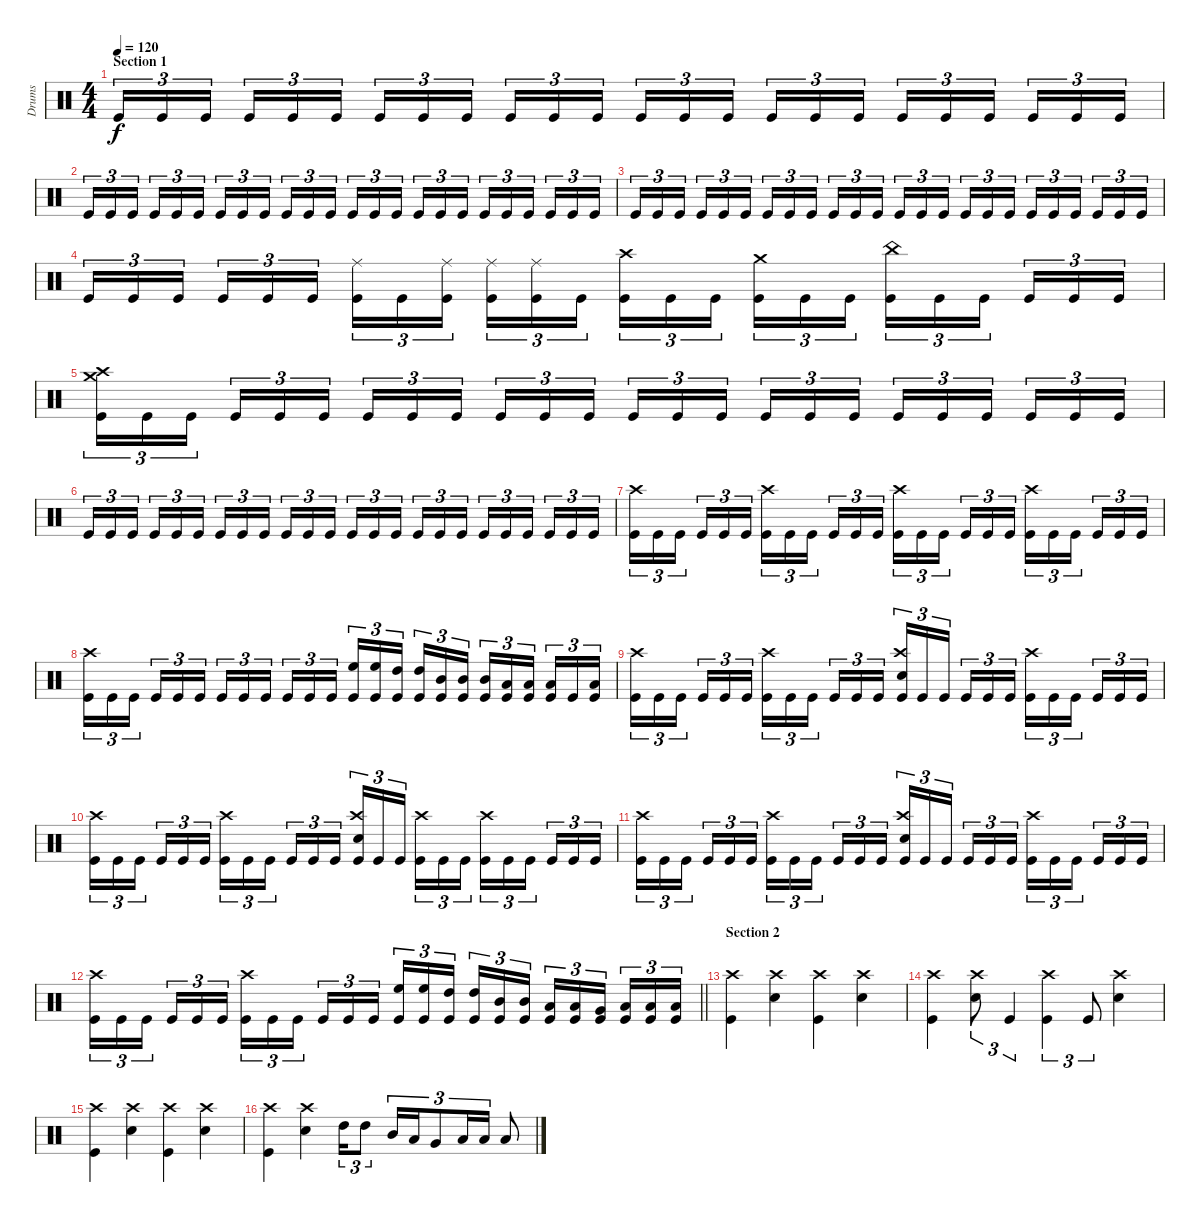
\track ("Drums" "Drums") {instrument percussion}
\staff {score}
\articulation defaults
\ts (4 4)
\section ("" "Section 1")
\tempo 120
\clef neutral
\ks c "Kick (hit)".16{tu (3 2) dy f} "Kick (hit)".16{tu (3 2)} "Kick (hit)".16{tu (3 2) beam splitsecondary} "Kick (hit)".16{tu (3 2)} "Kick (hit)".16{tu (3 2)} "Kick (hit)".16{tu (3 2)} "Kick (hit)".16{tu (3 2)} "Kick (hit)".16{tu (3 2)} "Kick (hit)".16{tu (3 2) beam splitsecondary} "Kick (hit)".16{tu (3 2)} "Kick (hit)".16{tu (3 2)} "Kick (hit)".16{tu (3 2)} "Kick (hit)".16{tu (3 2)} "Kick (hit)".16{tu (3 2)} "Kick (hit)".16{tu (3 2) beam splitsecondary} "Kick (hit)".16{tu (3 2)} "Kick (hit)".16{tu (3 2)} "Kick (hit)".16{tu (3 2)} "Kick (hit)".16{tu (3 2)} "Kick (hit)".16{tu (3 2)} "Kick (hit)".16{tu (3 2) beam splitsecondary} "Kick (hit)".16{tu (3 2)} "Kick (hit)".16{tu (3 2)} "Kick (hit)".16{tu (3 2)}
|
"Kick (hit)".16{tu (3 2)} "Kick (hit)".16{tu (3 2)} "Kick (hit)".16{tu (3 2) beam splitsecondary} "Kick (hit)".16{tu (3 2)} "Kick (hit)".16{tu (3 2)} "Kick (hit)".16{tu (3 2)} "Kick (hit)".16{tu (3 2)} "Kick (hit)".16{tu (3 2)} "Kick (hit)".16{tu (3 2) beam splitsecondary} "Kick (hit)".16{tu (3 2)} "Kick (hit)".16{tu (3 2)} "Kick (hit)".16{tu (3 2)} "Kick (hit)".16{tu (3 2)} "Kick (hit)".16{tu (3 2)} "Kick (hit)".16{tu (3 2) beam splitsecondary} "Kick (hit)".16{tu (3 2)} "Kick (hit)".16{tu (3 2)} "Kick (hit)".16{tu (3 2)} "Kick (hit)".16{tu (3 2)} "Kick (hit)".16{tu (3 2)} "Kick (hit)".16{tu (3 2) beam splitsecondary} "Kick (hit)".16{tu (3 2)} "Kick (hit)".16{tu (3 2)} "Kick (hit)".16{tu (3 2)} |
"Kick (hit)".16{tu (3 2)} "Kick (hit)".16{tu (3 2)} "Kick (hit)".16{tu (3 2) beam splitsecondary} "Kick (hit)".16{tu (3 2)} "Kick (hit)".16{tu (3 2)} "Kick (hit)".16{tu (3 2)} "Kick (hit)".16{tu (3 2)} "Kick (hit)".16{tu (3 2)} "Kick (hit)".16{tu (3 2) beam splitsecondary} "Kick (hit)".16{tu (3 2)} "Kick (hit)".16{tu (3 2)} "Kick (hit)".16{tu (3 2)} "Kick (hit)".16{tu (3 2)} "Kick (hit)".16{tu (3 2)} "Kick (hit)".16{tu (3 2) beam splitsecondary} "Kick (hit)".16{tu (3 2)} "Kick (hit)".16{tu (3 2)} "Kick (hit)".16{tu (3 2)} "Kick (hit)".16{tu (3 2)} "Kick (hit)".16{tu (3 2)} "Kick (hit)".16{tu (3 2) beam splitsecondary} "Kick (hit)".16{tu (3 2)} "Kick (hit)".16{tu (3 2)} "Kick (hit)".16{tu (3 2)} |
"Kick (hit)".16{tu (3 2)} "Kick (hit)".16{tu (3 2)} "Kick (hit)".16{tu (3 2) beam splitsecondary} "Kick (hit)".16{tu (3 2)} "Kick (hit)".16{tu (3 2)} "Kick (hit)".16{tu (3 2)} ("Ride (middle)" "Kick (hit)").16{tu (3 2)} "Kick (hit)".16{tu (3 2)} ("Ride (middle)" "Kick (hit)").16{tu (3 2) beam splitsecondary} ("Ride (middle)" "Kick (hit)").16{tu (3 2)} ("Ride (middle)" "Kick (hit)").16{tu (3 2)} "Kick (hit)".16{tu (3 2)} ("Crash high (hit)" "Kick (hit)").16{tu (3 2)} "Kick (hit)".16{tu (3 2)} "Kick (hit)".16{tu (3 2) beam splitsecondary} ("Crash medium (hit)" "Kick (hit)").16{tu (3 2)} "Kick (hit)".16{tu (3 2)} "Kick (hit)".16{tu (3 2)} ("China (hit)" "Kick (hit)").16{tu (3 2)} "Kick (hit)".16{tu (3 2)} "Kick (hit)".16{tu (3 2) beam splitsecondary} "Kick (hit)".16{tu (3 2)} "Kick (hit)".16{tu (3 2)} "Kick (hit)".16{tu (3 2)} |
("Crash high (hit)" "Crash medium (hit)" "Kick (hit)").16{tu (3 2)} "Kick (hit)".16{tu (3 2)} "Kick (hit)".16{tu (3 2) beam splitsecondary} "Kick (hit)".16{tu (3 2)} "Kick (hit)".16{tu (3 2)} "Kick (hit)".16{tu (3 2)} "Kick (hit)".16{tu (3 2)} "Kick (hit)".16{tu (3 2)} "Kick (hit)".16{tu (3 2) beam splitsecondary} "Kick (hit)".16{tu (3 2)} "Kick (hit)".16{tu (3 2)} "Kick (hit)".16{tu (3 2)} "Kick (hit)".16{tu (3 2)} "Kick (hit)".16{tu (3 2)} "Kick (hit)".16{tu (3 2) beam splitsecondary} "Kick (hit)".16{tu (3 2)} "Kick (hit)".16{tu (3 2)} "Kick (hit)".16{tu (3 2)} "Kick (hit)".16{tu (3 2)} "Kick (hit)".16{tu (3 2)} "Kick (hit)".16{tu (3 2) beam splitsecondary} "Kick (hit)".16{tu (3 2)} "Kick (hit)".16{tu (3 2)} "Kick (hit)".16{tu (3 2)} |
"Kick (hit)".16{tu (3 2)} "Kick (hit)".16{tu (3 2)} "Kick (hit)".16{tu (3 2) beam splitsecondary} "Kick (hit)".16{tu (3 2)} "Kick (hit)".16{tu (3 2)} "Kick (hit)".16{tu (3 2)} "Kick (hit)".16{tu (3 2)} "Kick (hit)".16{tu (3 2)} "Kick (hit)".16{tu (3 2) beam splitsecondary} "Kick (hit)".16{tu (3 2)} "Kick (hit)".16{tu (3 2)} "Kick (hit)".16{tu (3 2)} "Kick (hit)".16{tu (3 2)} "Kick (hit)".16{tu (3 2)} "Kick (hit)".16{tu (3 2) beam splitsecondary} "Kick (hit)".16{tu (3 2)} "Kick (hit)".16{tu (3 2)} "Kick (hit)".16{tu (3 2)} "Kick (hit)".16{tu (3 2)} "Kick (hit)".16{tu (3 2)} "Kick (hit)".16{tu (3 2) beam splitsecondary} "Kick (hit)".16{tu (3 2)} "Kick (hit)".16{tu (3 2)} "Kick (hit)".16{tu (3 2)} |
("Crash high (hit)" "Kick (hit)").16{tu (3 2)} "Kick (hit)".16{tu (3 2)} "Kick (hit)".16{tu (3 2) beam splitsecondary} "Kick (hit)".16{tu (3 2)} "Kick (hit)".16{tu (3 2)} "Kick (hit)".16{tu (3 2)} ("Crash high (hit)" "Kick (hit)").16{tu (3 2)} "Kick (hit)".16{tu (3 2)} "Kick (hit)".16{tu (3 2) beam splitsecondary} "Kick (hit)".16{tu (3 2)} "Kick (hit)".16{tu (3 2)} "Kick (hit)".16{tu (3 2)} ("Crash high (hit)" "Kick (hit)").16{tu (3 2)} "Kick (hit)".16{tu (3 2)} "Kick (hit)".16{tu (3 2) beam splitsecondary} "Kick (hit)".16{tu (3 2)} "Kick (hit)".16{tu (3 2)} "Kick (hit)".16{tu (3 2)} ("Crash high (hit)" "Kick (hit)").16{tu (3 2)} "Kick (hit)".16{tu (3 2)} "Kick (hit)".16{tu (3 2) beam splitsecondary} "Kick (hit)".16{tu (3 2)} "Kick (hit)".16{tu (3 2)} "Kick (hit)".16{tu (3 2)} |
("Crash high (hit)" "Kick (hit)").16{tu (3 2)} "Kick (hit)".16{tu (3 2)} "Kick (hit)".16{tu (3 2) beam splitsecondary} "Kick (hit)".16{tu (3 2)} "Kick (hit)".16{tu (3 2)} "Kick (hit)".16{tu (3 2)} "Kick (hit)".16{tu (3 2)} "Kick (hit)".16{tu (3 2)} "Kick (hit)".16{tu (3 2) beam splitsecondary} "Kick (hit)".16{tu (3 2)} "Kick (hit)".16{tu (3 2)} "Kick (hit)".16{tu (3 2)} ("High Floor Tom (hit)" "Kick (hit)").16{tu (3 2)} ("High Floor Tom (hit)" "Kick (hit)").16{tu (3 2)} ("High Tom (hit)" "Kick (hit)").16{tu (3 2) beam splitsecondary} ("High Tom (hit)" "Kick (hit)").16{tu (3 2)} ("Mid Tom (hit)" "Kick (hit)").16{tu (3 2)} ("Mid Tom (hit)" "Kick (hit)").16{tu (3 2)} ("Mid Tom (hit)" "Kick (hit)").16{tu (3 2)} ("Low Tom (hit)" "Kick (hit)").16{tu (3 2)} ("Low Tom (hit)" "Kick (hit)").16{tu (3 2) beam splitsecondary} ("Low Floor Tom (hit)" "Kick (hit)").16{tu (3 2)} "Kick (hit)".16{tu (3 2)} ("Low Tom (hit)" "Kick (hit)").16{tu (3 2)} |
("Crash high (hit)" "Kick (hit)").16{tu (3 2)} "Kick (hit)".16{tu (3 2)} "Kick (hit)".16{tu (3 2) beam splitsecondary} "Kick (hit)".16{tu (3 2)} "Kick (hit)".16{tu (3 2)} "Kick (hit)".16{tu (3 2)} ("Crash high (hit)" "Kick (hit)").16{tu (3 2)} "Kick (hit)".16{tu (3 2)} "Kick (hit)".16{tu (3 2) beam splitsecondary} "Kick (hit)".16{tu (3 2)} "Kick (hit)".16{tu (3 2)} "Kick (hit)".16{tu (3 2)} ("Crash high (hit)" "Snare (hit) 2" "Kick (hit)").16{tu (3 2)} "Kick (hit)".16{tu (3 2)} "Kick (hit)".16{tu (3 2) beam splitsecondary} "Kick (hit)".16{tu (3 2)} "Kick (hit)".16{tu (3 2)} "Kick (hit)".16{tu (3 2)} ("Crash high (hit)" "Kick (hit)").16{tu (3 2)} "Kick (hit)".16{tu (3 2)} "Kick (hit)".16{tu (3 2) beam splitsecondary} "Kick (hit)".16{tu (3 2)} "Kick (hit)".16{tu (3 2)} "Kick (hit)".16{tu (3 2)} |
("Crash high (hit)" "Kick (hit)").16{tu (3 2)} "Kick (hit)".16{tu (3 2)} "Kick (hit)".16{tu (3 2) beam splitsecondary} "Kick (hit)".16{tu (3 2)} "Kick (hit)".16{tu (3 2)} "Kick (hit)".16{tu (3 2)} ("Crash high (hit)" "Kick (hit)").16{tu (3 2)} "Kick (hit)".16{tu (3 2)} "Kick (hit)".16{tu (3 2) beam splitsecondary} "Kick (hit)".16{tu (3 2)} "Kick (hit)".16{tu (3 2)} "Kick (hit)".16{tu (3 2)} ("Crash high (hit)" "Snare (hit) 2" "Kick (hit)").16{tu (3 2)} "Kick (hit)".16{tu (3 2)} "Kick (hit)".16{tu (3 2) beam splitsecondary} ("Crash high (hit)" "Kick (hit)").16{tu (3 2)} "Kick (hit)".16{tu (3 2)} "Kick (hit)".16{tu (3 2)} ("Crash high (hit)" "Kick (hit)").16{tu (3 2)} "Kick (hit)".16{tu (3 2)} "Kick (hit)".16{tu (3 2) beam splitsecondary} "Kick (hit)".16{tu (3 2)} "Kick (hit)".16{tu (3 2)} "Kick (hit)".16{tu (3 2)} |
("Crash high (hit)" "Kick (hit)").16{tu (3 2)} "Kick (hit)".16{tu (3 2)} "Kick (hit)".16{tu (3 2) beam splitsecondary} "Kick (hit)".16{tu (3 2)} "Kick (hit)".16{tu (3 2)} "Kick (hit)".16{tu (3 2)} ("Crash high (hit)" "Kick (hit)").16{tu (3 2)} "Kick (hit)".16{tu (3 2)} "Kick (hit)".16{tu (3 2) beam splitsecondary} "Kick (hit)".16{tu (3 2)} "Kick (hit)".16{tu (3 2)} "Kick (hit)".16{tu (3 2)} ("Crash high (hit)" "Snare (hit) 2" "Kick (hit)").16{tu (3 2)} "Kick (hit)".16{tu (3 2)} "Kick (hit)".16{tu (3 2) beam splitsecondary} "Kick (hit)".16{tu (3 2)} "Kick (hit)".16{tu (3 2)} "Kick (hit)".16{tu (3 2)} ("Crash high (hit)" "Kick (hit)").16{tu (3 2)} "Kick (hit)".16{tu (3 2)} "Kick (hit)".16{tu (3 2) beam splitsecondary} "Kick (hit)".16{tu (3 2)} "Kick (hit)".16{tu (3 2)} "Kick (hit)".16{tu (3 2)} |
\barLineRight lightlight
("Crash high (hit)" "Kick (hit)").16{tu (3 2)} "Kick (hit)".16{tu (3 2)} "Kick (hit)".16{tu (3 2) beam splitsecondary} "Kick (hit)".16{tu (3 2)} "Kick (hit)".16{tu (3 2)} "Kick (hit)".16{tu (3 2)} ("Crash high (hit)" "Kick (hit)").16{tu (3 2)} "Kick (hit)".16{tu (3 2)} "Kick (hit)".16{tu (3 2) beam splitsecondary} "Kick (hit)".16{tu (3 2)} "Kick (hit)".16{tu (3 2)} "Kick (hit)".16{tu (3 2)} ("High Floor Tom (hit)" "Kick (hit)").16{tu (3 2)} ("High Floor Tom (hit)" "Kick (hit)").16{tu (3 2)} ("High Tom (hit)" "Kick (hit)").16{tu (3 2) beam splitsecondary} ("High Tom (hit)" "Kick (hit)").16{tu (3 2)} ("Mid Tom (hit)" "Kick (hit)").16{tu (3 2)} ("Mid Tom (hit)" "Kick (hit)").16{tu (3 2)} ("Low Tom (hit)" "Kick (hit)").16{tu (3 2)} ("Low Tom (hit)" "Kick (hit)").16{tu (3 2)} ("Very Low Tom (hit)" "Kick (hit)").16{tu (3 2) beam splitsecondary} ("Low Floor Tom (hit)" "Kick (hit)").16{tu (3 2)} ("Low Floor Tom (hit)" "Kick (hit)").16{tu (3 2)} ("Low Floor Tom (hit)" "Kick (hit)").16{tu (3 2)} |
\section ("" "Section 2")
("Crash high (hit)" "Kick (hit)").4 ("Crash high (hit)" "Snare (hit) 2").4 ("Crash high (hit)" "Kick (hit)").4 ("Crash high (hit)" "Snare (hit) 2").4 |
("Crash high (hit)" "Kick (hit)").4 ("Crash high (hit)" "Snare (hit) 2").8{tu (3 2)} "Kick (hit)".4{tu (3 2)} ("Crash high (hit)" "Kick (hit)").4{tu (3 2)} "Kick (hit)".8{tu (3 2)} ("Crash high (hit)" "Snare (hit) 2").4 |
("Crash high (hit)" "Kick (hit)").4 ("Crash high (hit)" "Snare (hit) 2").4 ("Crash high (hit)" "Kick (hit)").4 ("Crash high (hit)" "Snare (hit) 2").4 |
("Crash high (hit)" "Kick (hit)").4 ("Crash high (hit)" "Snare (hit) 2").4 "High Tom (hit)".16{tu (3 2)} "High Tom (hit)".8{tu (3 2)} "Mid Tom (hit)".16{tu (3 2)} "Low Tom (hit)".16{tu (3 2)} "Very Low Tom (hit)".8{tu (3 2)} "Low Floor Tom (hit)".16{tu (3 2)} "Low Floor Tom (hit)".16{tu (3 2)} "Low Floor Tom (hit)".8
